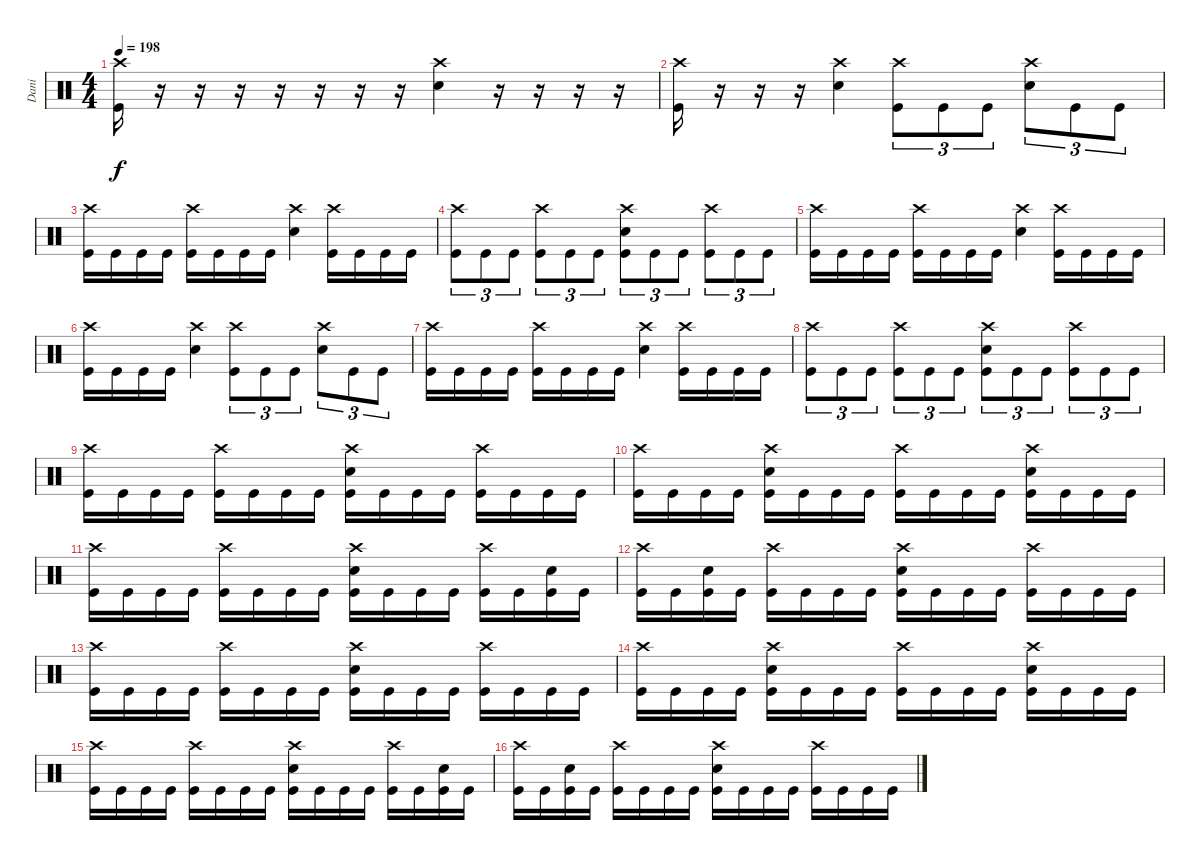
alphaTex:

\track ("Dani" "Dani") {instrument percussion}
\staff {score}
\articulation defaults
\ts (4 4)
\tempo 198
\clef neutral
\ks c
("Crash high (hit)" "Kick (hit)").16{dy f} r.16 r.16 r.16 r.16 r.16 r.16 r.16 ("Crash high (hit)" "Snare (hit) 2").4 r.16 r.16 r.16 r.16 |
("Crash high (hit)" "Kick (hit)").16 r.16 r.16 r.16 ("Crash high (hit)" "Snare (hit) 2").4 ("Crash high (hit)" "Kick (hit)").8{tu (3 2)} "Kick (hit)".8{tu (3 2)} "Kick (hit)".8{tu (3 2)} ("Snare (hit) 2" "Crash high (hit)").8{tu (3 2)} "Kick (hit)".8{tu (3 2)} "Kick (hit)".8{tu (3 2)} |
("Crash high (hit)" "Kick (hit)").16 "Kick (hit)".16 "Kick (hit)".16 "Kick (hit)".16 ("Crash high (hit)" "Kick (hit)").16 "Kick (hit)".16 "Kick (hit)".16 "Kick (hit)".16 ("Crash high (hit)" "Snare (hit) 2").4 ("Crash high (hit)" "Kick (hit)").16 "Kick (hit)".16 "Kick (hit)".16 "Kick (hit)".16 |
("Crash high (hit)" "Kick (hit)").8{tu (3 2)} "Kick (hit)".8{tu (3 2)} "Kick (hit)".8{tu (3 2)} ("Crash high (hit)" "Kick (hit)").8{tu (3 2)} "Kick (hit)".8{tu (3 2)} "Kick (hit)".8{tu (3 2)} ("Crash high (hit)" "Kick (hit)" "Snare (hit) 2").8{tu (3 2)} "Kick (hit)".8{tu (3 2)} "Kick (hit)".8{tu (3 2)} ("Crash high (hit)" "Kick (hit)").8{tu (3 2)} "Kick (hit)".8{tu (3 2)} "Kick (hit)".8{tu (3 2)} |
("Crash high (hit)" "Kick (hit)").16 "Kick (hit)".16 "Kick (hit)".16 "Kick (hit)".16 ("Crash high (hit)" "Kick (hit)").16 "Kick (hit)".16 "Kick (hit)".16 "Kick (hit)".16 ("Crash high (hit)" "Snare (hit) 2").4 ("Crash high (hit)" "Kick (hit)").16 "Kick (hit)".16 "Kick (hit)".16 "Kick (hit)".16 |
("Crash high (hit)" "Kick (hit)").16 "Kick (hit)".16 "Kick (hit)".16 "Kick (hit)".16 ("Crash high (hit)" "Snare (hit) 2").4 ("Crash high (hit)" "Kick (hit)").8{tu (3 2)} "Kick (hit)".8{tu (3 2)} "Kick (hit)".8{tu (3 2)} ("Snare (hit) 2" "Crash high (hit)").8{tu (3 2)} "Kick (hit)".8{tu (3 2)} "Kick (hit)".8{tu (3 2)} |
("Crash high (hit)" "Kick (hit)").16 "Kick (hit)".16 "Kick (hit)".16 "Kick (hit)".16 ("Crash high (hit)" "Kick (hit)").16 "Kick (hit)".16 "Kick (hit)".16 "Kick (hit)".16 ("Crash high (hit)" "Snare (hit) 2").4 ("Crash high (hit)" "Kick (hit)").16 "Kick (hit)".16 "Kick (hit)".16 "Kick (hit)".16 |
("Crash high (hit)" "Kick (hit)").8{tu (3 2)} "Kick (hit)".8{tu (3 2)} "Kick (hit)".8{tu (3 2)} ("Crash high (hit)" "Kick (hit)").8{tu (3 2)} "Kick (hit)".8{tu (3 2)} "Kick (hit)".8{tu (3 2)} ("Crash high (hit)" "Kick (hit)" "Snare (hit) 2").8{tu (3 2)} "Kick (hit)".8{tu (3 2)} "Kick (hit)".8{tu (3 2)} ("Crash high (hit)" "Kick (hit)").8{tu (3 2)} "Kick (hit)".8{tu (3 2)} "Kick (hit)".8{tu (3 2)} |
("Crash high (hit)" "Kick (hit)").16 "Kick (hit)".16 "Kick (hit)".16 "Kick (hit)".16 ("Crash high (hit)" "Kick (hit)").16 "Kick (hit)".16 "Kick (hit)".16 "Kick (hit)".16 ("Crash high (hit)" "Snare (hit) 2" "Kick (hit)").16 "Kick (hit)".16 "Kick (hit)".16 "Kick (hit)".16 ("Crash high (hit)" "Kick (hit)").16 "Kick (hit)".16 "Kick (hit)".16 "Kick (hit)".16 |
("Crash high (hit)" "Kick (hit)").16 "Kick (hit)".16 "Kick (hit)".16 "Kick (hit)".16 ("Snare (hit) 2" "Crash high (hit)" "Kick (hit)").16 "Kick (hit)".16 "Kick (hit)".16 "Kick (hit)".16 ("Crash high (hit)" "Kick (hit)").16 "Kick (hit)".16 "Kick (hit)".16 "Kick (hit)".16 ("Snare (hit) 2" "Crash high (hit)" "Kick (hit)").16 "Kick (hit)".16 "Kick (hit)".16 "Kick (hit)".16 |
("Crash high (hit)" "Kick (hit)").16 "Kick (hit)".16 "Kick (hit)".16 "Kick (hit)".16 ("Crash high (hit)" "Kick (hit)").16 "Kick (hit)".16 "Kick (hit)".16 "Kick (hit)".16 ("Crash high (hit)" "Snare (hit) 2" "Kick (hit)").16 "Kick (hit)".16 "Kick (hit)".16 "Kick (hit)".16 ("Crash high (hit)" "Kick (hit)").16 "Kick (hit)".16 ("Snare (hit) 2" "Kick (hit)").16 "Kick (hit)".16 |
("Crash high (hit)" "Kick (hit)").16 "Kick (hit)".16 ("Snare (hit) 2" "Kick (hit)").16 "Kick (hit)".16 ("Crash high (hit)" "Kick (hit)").16 "Kick (hit)".16 "Kick (hit)".16 "Kick (hit)".16 ("Snare (hit) 2" "Crash high (hit)" "Kick (hit)").16 "Kick (hit)".16 "Kick (hit)".16 "Kick (hit)".16 ("Crash high (hit)" "Kick (hit)").16 "Kick (hit)".16 "Kick (hit)".16 "Kick (hit)".16 |
("Crash high (hit)" "Kick (hit)").16 "Kick (hit)".16 "Kick (hit)".16 "Kick (hit)".16 ("Crash high (hit)" "Kick (hit)").16 "Kick (hit)".16 "Kick (hit)".16 "Kick (hit)".16 ("Crash high (hit)" "Snare (hit) 2" "Kick (hit)").16 "Kick (hit)".16 "Kick (hit)".16 "Kick (hit)".16 ("Crash high (hit)" "Kick (hit)").16 "Kick (hit)".16 "Kick (hit)".16 "Kick (hit)".16 |
("Crash high (hit)" "Kick (hit)").16 "Kick (hit)".16 "Kick (hit)".16 "Kick (hit)".16 ("Snare (hit) 2" "Crash high (hit)" "Kick (hit)").16 "Kick (hit)".16 "Kick (hit)".16 "Kick (hit)".16 ("Crash high (hit)" "Kick (hit)").16 "Kick (hit)".16 "Kick (hit)".16 "Kick (hit)".16 ("Snare (hit) 2" "Crash high (hit)" "Kick (hit)").16 "Kick (hit)".16 "Kick (hit)".16 "Kick (hit)".16 |
("Crash high (hit)" "Kick (hit)").16 "Kick (hit)".16 "Kick (hit)".16 "Kick (hit)".16 ("Crash high (hit)" "Kick (hit)").16 "Kick (hit)".16 "Kick (hit)".16 "Kick (hit)".16 ("Crash high (hit)" "Snare (hit) 2" "Kick (hit)").16 "Kick (hit)".16 "Kick (hit)".16 "Kick (hit)".16 ("Crash high (hit)" "Kick (hit)").16 "Kick (hit)".16 ("Snare (hit) 2" "Kick (hit)").16 "Kick (hit)".16 |
("Crash high (hit)" "Kick (hit)").16 "Kick (hit)".16 ("Snare (hit) 2" "Kick (hit)").16 "Kick (hit)".16 ("Crash high (hit)" "Kick (hit)").16 "Kick (hit)".16 "Kick (hit)".16 "Kick (hit)".16 ("Snare (hit) 2" "Crash high (hit)" "Kick (hit)").16 "Kick (hit)".16 "Kick (hit)".16 "Kick (hit)".16 ("Crash high (hit)" "Kick (hit)").16 "Kick (hit)".16 "Kick (hit)".16 "Kick (hit)".16
